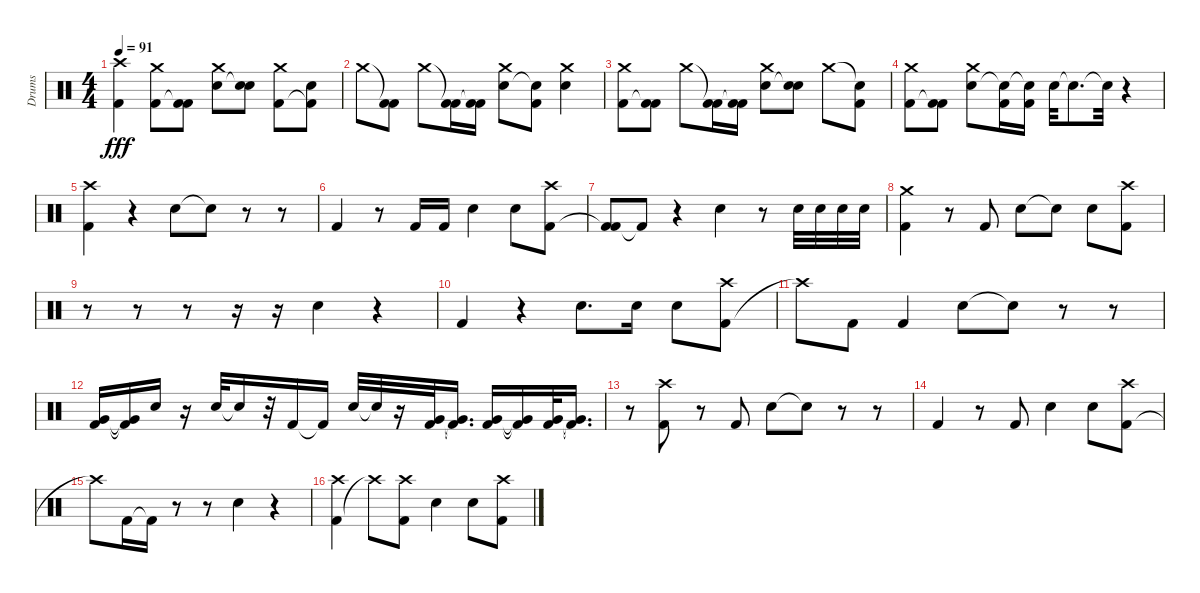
\track ("Drums" "Drums") {instrument percussion}
\staff {score}
\articulation defaults
\ts (4 4)
\tempo 91
\clef neutral
\ks c
("Kick (hit) 2" "Crash high (hit)").4{dy fff} ("Kick (hit) 2" "Crash medium (hit)").8 ("Kick (hit) 2"{t} "Kick (hit) 2").8 ("Snare (hit) 2" "Crash medium (hit)").8 ("Snare (hit) 2"{t} "Snare (hit) 2").8 ("Kick (hit) 2" "Crash medium (hit)").8 ("Kick (hit) 2"{t} "Snare (hit) 2").8 |
"Crash medium (hit)".8 ("Kick (hit) 2"{t} "Kick (hit) 2").8 "Crash medium (hit)".8 ("Kick (hit) 2"{t} "Kick (hit) 2").16 ("Kick (hit) 2"{t} "Kick (hit) 2").16 ("Snare (hit) 2" "Crash medium (hit)").8 ("Snare (hit) 2"{t} "Kick (hit) 2").8 ("Snare (hit) 2" "Crash medium (hit)").4 |
("Kick (hit) 2" "Crash medium (hit)").8 ("Kick (hit) 2"{t} "Kick (hit) 2").8 "Crash medium (hit)".8 ("Kick (hit) 2"{t} "Kick (hit) 2").16 ("Kick (hit) 2"{t} "Kick (hit) 2").16 ("Snare (hit) 2" "Crash medium (hit)").8 ("Snare (hit) 2"{t} "Snare (hit) 2").8 "Crash medium (hit)".8 ("Snare (hit) 2"{t} "Kick (hit) 2").8 |
("Kick (hit) 2" "Crash medium (hit)").8 ("Kick (hit) 2"{t} "Kick (hit) 2").8 ("Snare (hit) 2" "Crash medium (hit)").8 ("Snare (hit) 2"{t} "Kick (hit) 2").16 ("Snare (hit) 2"{t} "Kick (hit) 2").16 "Snare (hit) 2".32 "Snare (hit) 2"{t}.8{d} "Snare (hit) 2"{t}.32 r.4 |
("Kick (hit) 2" "Crash high (hit)").4 r.4 "Snare (hit) 2".8 "Snare (hit) 2"{t}.8 r.8 r.8 |
"Kick (hit) 2".4 r.8 "Kick (hit) 2".16 "Kick (hit) 2".16 "Snare (hit) 2".4 "Snare (hit) 2".8 ("Kick (hit) 2" "Crash high (hit)").8 |
("Kick (hit) 2"{t} "Kick (hit) 2").8 "Kick (hit) 2"{t}.8 r.4 "Snare (hit) 2".4 r.8 "Snare (hit) 2".32 "Snare (hit) 2".32 "Snare (hit) 2".32 "Snare (hit) 2".32 |
("Kick (hit) 2" "Crash medium (hit)").4 r.8 "Kick (hit) 2".8 "Snare (hit) 2".8 "Snare (hit) 2"{t}.8 "Snare (hit) 2".8 ("Kick (hit) 2" "Crash high (hit)").8 |
r.8 r.8 r.8 r.16 r.16 "Snare (hit) 2".4 r.4 |
"Kick (hit) 2".4 r.4 "Snare (hit) 2".8{d} "Snare (hit) 2".16 "Snare (hit) 2".8 ("Kick (hit) 2" "Crash high (hit)").8 |
"Crash high (hit)"{t}.8 "Kick (hit) 2".8 "Kick (hit) 2".4 "Snare (hit) 2".8 "Snare (hit) 2"{t}.8 r.8 r.8 |
("Kick (hit) 2" "Very Low Tom (hit)").16 ("Kick (hit) 2"{t} "Very Low Tom (hit)"{t}).16 "Snare (hit) 2".16 r.16 "Snare (hit) 2".32 "Snare (hit) 2"{t}.16 r.32 "Kick (hit) 2".16 "Kick (hit) 2"{t}.16 "Snare (hit) 2".32 "Snare (hit) 2"{t}.32 r.16 ("Kick (hit) 2" "Very Low Tom (hit)").32 ("Kick (hit) 2"{t} "Very Low Tom (hit)"{t}).16{d} ("Kick (hit) 2" "Very Low Tom (hit)").16 ("Kick (hit) 2"{t} "Very Low Tom (hit)"{t}).16 ("Kick (hit) 2" "Very Low Tom (hit)").32 ("Kick (hit) 2"{t} "Very Low Tom (hit)"{t}).16{d} |
r.8 ("Kick (hit) 2" "Crash high (hit)").8 r.8 "Kick (hit) 2".8 "Snare (hit) 2".8 "Snare (hit) 2"{t}.8 r.8 r.8 |
"Kick (hit) 2".4 r.8 "Kick (hit) 2".8 "Snare (hit) 2".4 "Snare (hit) 2".8 ("Kick (hit) 2" "Crash high (hit)").8 |
"Crash high (hit)"{t}.8 "Kick (hit) 2".16 "Kick (hit) 2"{t}.16 r.8 r.8 "Snare (hit) 2".4 r.4 |
("Kick (hit) 2" "Crash high (hit)").4 "Crash high (hit)"{t}.8 ("Kick (hit) 2" "Crash high (hit)").8 "Snare (hit) 2".4 "Snare (hit) 2".8 ("Kick (hit) 2" "Crash high (hit)").8
